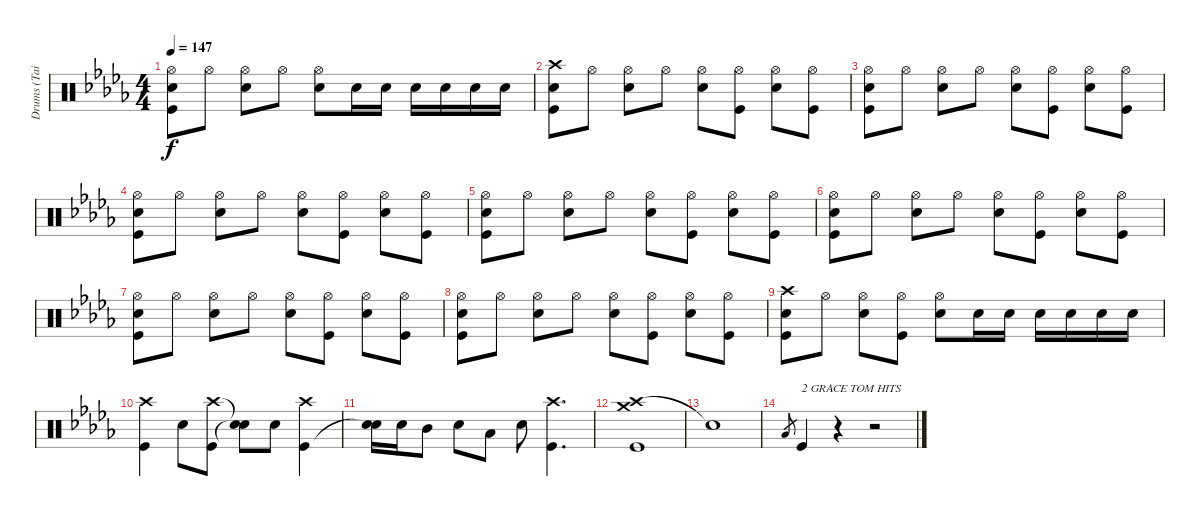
\track ("Drums (Tainaka Ritsu)" "Drums (Tai") {instrument percussion}
\staff {score}
\articulation defaults
\ts (4 4)
\tempo 147
\clef neutral
\ks db
("Hi-Hat (open)" "Snare (hit) 2" "Kick (hit)").8{dy f} "Hi-Hat (open)".8 ("Hi-Hat (open)" "Snare (hit) 2").8 "Hi-Hat (open)".8 ("Hi-Hat (open)" "Snare (hit) 2").8 "Snare (hit) 2".16 "Snare (hit) 2".16 "Snare (hit) 2".16 "Snare (hit) 2".16 "Snare (hit) 2".16 "Snare (hit) 2".16 |
("Crash high (hit)" "Snare (hit) 2" "Kick (hit)").8 "Hi-Hat (open)".8 ("Hi-Hat (open)" "Snare (hit) 2").8 "Hi-Hat (open)".8 ("Hi-Hat (open)" "Snare (hit) 2").8 ("Hi-Hat (open)" "Kick (hit)").8 ("Hi-Hat (open)" "Snare (hit) 2").8 ("Hi-Hat (open)" "Kick (hit)").8 |
("Hi-Hat (open)" "Snare (hit) 2" "Kick (hit)").8 "Hi-Hat (open)".8 ("Hi-Hat (open)" "Snare (hit) 2").8 "Hi-Hat (open)".8 ("Hi-Hat (open)" "Snare (hit) 2").8 ("Hi-Hat (open)" "Kick (hit)").8 ("Hi-Hat (open)" "Snare (hit) 2").8 ("Hi-Hat (open)" "Kick (hit)").8 |
("Hi-Hat (open)" "Snare (hit) 2" "Kick (hit)").8 "Hi-Hat (open)".8 ("Hi-Hat (open)" "Snare (hit) 2").8 "Hi-Hat (open)".8 ("Hi-Hat (open)" "Snare (hit) 2").8 ("Hi-Hat (open)" "Kick (hit)").8 ("Hi-Hat (open)" "Snare (hit) 2").8 ("Hi-Hat (open)" "Kick (hit)").8 |
("Hi-Hat (open)" "Snare (hit) 2" "Kick (hit)").8 "Hi-Hat (open)".8 ("Hi-Hat (open)" "Snare (hit) 2").8 "Hi-Hat (open)".8 ("Hi-Hat (open)" "Snare (hit) 2").8 ("Hi-Hat (open)" "Kick (hit)").8 ("Hi-Hat (open)" "Snare (hit) 2").8 ("Hi-Hat (open)" "Kick (hit)").8 |
("Hi-Hat (open)" "Snare (hit) 2" "Kick (hit)").8 "Hi-Hat (open)".8 ("Hi-Hat (open)" "Snare (hit) 2").8 "Hi-Hat (open)".8 ("Hi-Hat (open)" "Snare (hit) 2").8 ("Hi-Hat (open)" "Kick (hit)").8 ("Hi-Hat (open)" "Snare (hit) 2").8 ("Hi-Hat (open)" "Kick (hit)").8 |
("Hi-Hat (open)" "Snare (hit) 2" "Kick (hit)").8 "Hi-Hat (open)".8 ("Hi-Hat (open)" "Snare (hit) 2").8 "Hi-Hat (open)".8 ("Hi-Hat (open)" "Snare (hit) 2").8 ("Hi-Hat (open)" "Kick (hit)").8 ("Hi-Hat (open)" "Snare (hit) 2").8 ("Hi-Hat (open)" "Kick (hit)").8 |
("Hi-Hat (open)" "Snare (hit) 2" "Kick (hit)").8 "Hi-Hat (open)".8 ("Hi-Hat (open)" "Snare (hit) 2").8 "Hi-Hat (open)".8 ("Hi-Hat (open)" "Snare (hit) 2").8 ("Hi-Hat (open)" "Kick (hit)").8 ("Hi-Hat (open)" "Snare (hit) 2").8 ("Hi-Hat (open)" "Kick (hit)").8 |
("Crash high (hit)" "Snare (hit) 2" "Kick (hit)").8 "Hi-Hat (open)".8 ("Hi-Hat (open)" "Snare (hit) 2").8 ("Hi-Hat (open)" "Kick (hit)").8 ("Hi-Hat (open)" "Snare (hit) 2").8 "Snare (hit) 2".16 "Snare (hit) 2".16 "Snare (hit) 2".16 "Snare (hit) 2".16 "Snare (hit) 2".16 "Snare (hit) 2".16 |
("Crash high (hit)" "Kick (hit)").4 "Snare (hit) 2".8 ("Crash high (hit)" "Kick (hit)").8 ("Snare (hit)"{t} "Snare (hit)"{t}).8 "Snare (hit) 2".8 ("Crash high (hit)" "Kick (hit)").4 |
("Snare (hit) 2" "Snare (hit)"{t}).16 "Snare (hit) 2".16 "Mid Tom (hit)".8 "Snare (hit) 2".8 "Low Tom (hit)".8 "Snare (hit) 2".8 ("Crash high (hit)" "Kick (hit)").4{d} |
("Crash high (hit)" "Crash medium (hit)" "Kick (hit)").1 |
"Snare (hit)"{t}.1 |
"Low Tom (hit)".8{gr} "Kick (hit)".4{txt "2 GRACE TOM HITS"} r.4 r.2
